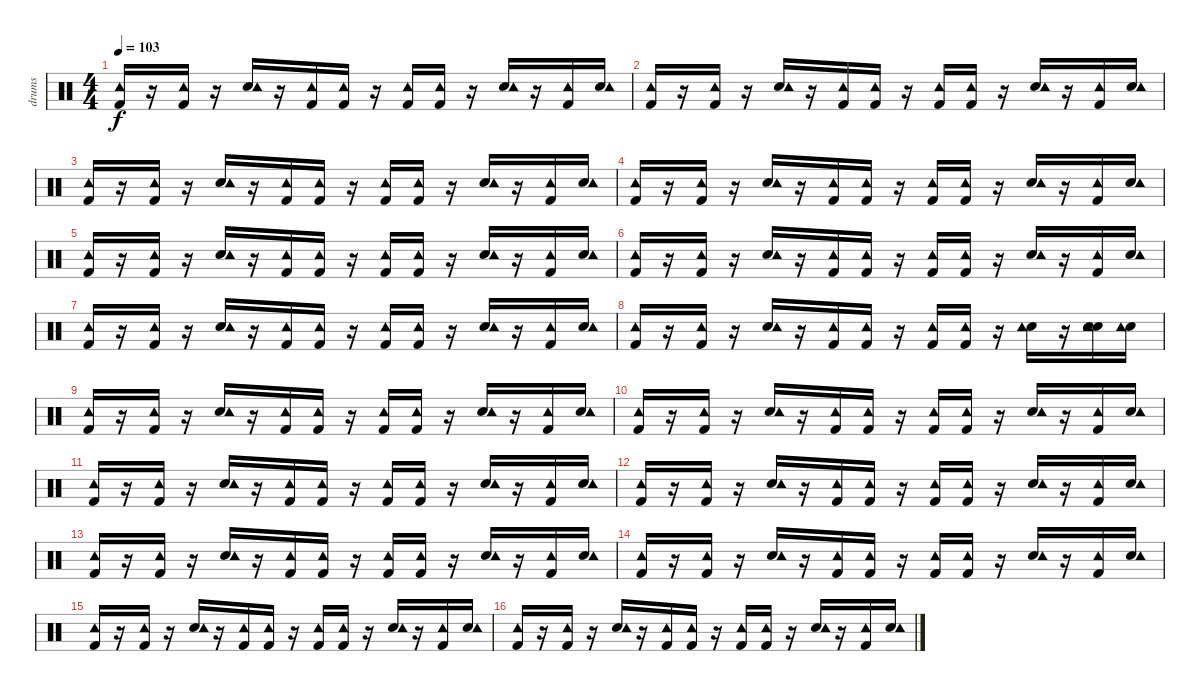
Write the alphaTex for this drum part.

\track ("drums" "drums") {instrument percussion}
\staff {score}
\articulation defaults
\ts (4 4)
\tempo 103
\clef neutral
\ks c
("Kick (hit) 2" "Tambourine (hit)").16{dy f} r.16 ("Kick (hit) 2" "Tambourine (hit)").16 r.16 ("Electric Snare (hit)" "Tambourine (hit)").16 r.16 ("Kick (hit) 2" "Tambourine (hit)").16 ("Kick (hit) 2" "Tambourine (hit)").16 r.16 ("Kick (hit) 2" "Tambourine (hit)").16 ("Kick (hit) 2" "Tambourine (hit)").16 r.16 ("Electric Snare (hit)" "Tambourine (hit)").16 r.16 ("Kick (hit) 2" "Tambourine (hit)").16 ("Electric Snare (hit)" "Tambourine (hit)").16 |
("Kick (hit) 2" "Tambourine (hit)").16 r.16 ("Kick (hit) 2" "Tambourine (hit)").16 r.16 ("Electric Snare (hit)" "Tambourine (hit)").16 r.16 ("Kick (hit) 2" "Tambourine (hit)").16 ("Kick (hit) 2" "Tambourine (hit)").16 r.16 ("Kick (hit) 2" "Tambourine (hit)").16 ("Kick (hit) 2" "Tambourine (hit)").16 r.16 ("Electric Snare (hit)" "Tambourine (hit)").16 r.16 ("Kick (hit) 2" "Tambourine (hit)").16 ("Electric Snare (hit)" "Tambourine (hit)").16 |
("Kick (hit) 2" "Tambourine (hit)").16 r.16 ("Kick (hit) 2" "Tambourine (hit)").16 r.16 ("Electric Snare (hit)" "Tambourine (hit)").16 r.16 ("Kick (hit) 2" "Tambourine (hit)").16 ("Kick (hit) 2" "Tambourine (hit)").16 r.16 ("Kick (hit) 2" "Tambourine (hit)").16 ("Kick (hit) 2" "Tambourine (hit)").16 r.16 ("Electric Snare (hit)" "Tambourine (hit)").16 r.16 ("Kick (hit) 2" "Tambourine (hit)").16 ("Electric Snare (hit)" "Tambourine (hit)").16 |
("Kick (hit) 2" "Tambourine (hit)").16 r.16 ("Kick (hit) 2" "Tambourine (hit)").16 r.16 ("Electric Snare (hit)" "Tambourine (hit)").16 r.16 ("Kick (hit) 2" "Tambourine (hit)").16 ("Kick (hit) 2" "Tambourine (hit)").16 r.16 ("Kick (hit) 2" "Tambourine (hit)").16 ("Kick (hit) 2" "Tambourine (hit)").16 r.16 ("Electric Snare (hit)" "Tambourine (hit)").16 r.16 ("Kick (hit) 2" "Tambourine (hit)").16 ("Electric Snare (hit)" "Tambourine (hit)").16 |
("Kick (hit) 2" "Tambourine (hit)").16 r.16 ("Kick (hit) 2" "Tambourine (hit)").16 r.16 ("Electric Snare (hit)" "Tambourine (hit)").16 r.16 ("Kick (hit) 2" "Tambourine (hit)").16 ("Kick (hit) 2" "Tambourine (hit)").16 r.16 ("Kick (hit) 2" "Tambourine (hit)").16 ("Kick (hit) 2" "Tambourine (hit)").16 r.16 ("Electric Snare (hit)" "Tambourine (hit)").16 r.16 ("Kick (hit) 2" "Tambourine (hit)").16 ("Electric Snare (hit)" "Tambourine (hit)").16 |
("Kick (hit) 2" "Tambourine (hit)").16 r.16 ("Kick (hit) 2" "Tambourine (hit)").16 r.16 ("Electric Snare (hit)" "Tambourine (hit)").16 r.16 ("Kick (hit) 2" "Tambourine (hit)").16 ("Kick (hit) 2" "Tambourine (hit)").16 r.16 ("Kick (hit) 2" "Tambourine (hit)").16 ("Kick (hit) 2" "Tambourine (hit)").16 r.16 ("Electric Snare (hit)" "Tambourine (hit)").16 r.16 ("Kick (hit) 2" "Tambourine (hit)").16 ("Electric Snare (hit)" "Tambourine (hit)").16 |
("Kick (hit) 2" "Tambourine (hit)").16 r.16 ("Kick (hit) 2" "Tambourine (hit)").16 r.16 ("Electric Snare (hit)" "Tambourine (hit)").16 r.16 ("Kick (hit) 2" "Tambourine (hit)").16 ("Kick (hit) 2" "Tambourine (hit)").16 r.16 ("Kick (hit) 2" "Tambourine (hit)").16 ("Kick (hit) 2" "Tambourine (hit)").16 r.16 ("Electric Snare (hit)" "Tambourine (hit)").16 r.16 ("Kick (hit) 2" "Tambourine (hit)").16 ("Electric Snare (hit)" "Tambourine (hit)").16 |
("Kick (hit) 2" "Tambourine (hit)").16 r.16 ("Kick (hit) 2" "Tambourine (hit)").16 r.16 ("Electric Snare (hit)" "Tambourine (hit)").16 r.16 ("Kick (hit) 2" "Tambourine (hit)").16 ("Kick (hit) 2" "Tambourine (hit)").16 r.16 ("Kick (hit) 2" "Tambourine (hit)").16 ("Kick (hit) 2" "Tambourine (hit)").16 r.16 ("Electric Snare (hit)" "Tambourine (hit)").16 r.16 ("Electric Snare (hit)" "Snare (hit) 2" "Tambourine (hit)").16 ("Electric Snare (hit)" "Tambourine (hit)").16 |
("Kick (hit) 2" "Tambourine (hit)").16 r.16 ("Kick (hit) 2" "Tambourine (hit)").16 r.16 ("Electric Snare (hit)" "Tambourine (hit)").16 r.16 ("Kick (hit) 2" "Tambourine (hit)").16 ("Kick (hit) 2" "Tambourine (hit)").16 r.16 ("Kick (hit) 2" "Tambourine (hit)").16 ("Kick (hit) 2" "Tambourine (hit)").16 r.16 ("Electric Snare (hit)" "Tambourine (hit)").16 r.16 ("Kick (hit) 2" "Tambourine (hit)").16 ("Electric Snare (hit)" "Tambourine (hit)").16 |
("Kick (hit) 2" "Tambourine (hit)").16 r.16 ("Kick (hit) 2" "Tambourine (hit)").16 r.16 ("Electric Snare (hit)" "Tambourine (hit)").16 r.16 ("Kick (hit) 2" "Tambourine (hit)").16 ("Kick (hit) 2" "Tambourine (hit)").16 r.16 ("Kick (hit) 2" "Tambourine (hit)").16 ("Kick (hit) 2" "Tambourine (hit)").16 r.16 ("Electric Snare (hit)" "Tambourine (hit)").16 r.16 ("Kick (hit) 2" "Tambourine (hit)").16 ("Electric Snare (hit)" "Tambourine (hit)").16 |
("Kick (hit) 2" "Tambourine (hit)").16 r.16 ("Kick (hit) 2" "Tambourine (hit)").16 r.16 ("Electric Snare (hit)" "Tambourine (hit)").16 r.16 ("Kick (hit) 2" "Tambourine (hit)").16 ("Kick (hit) 2" "Tambourine (hit)").16 r.16 ("Kick (hit) 2" "Tambourine (hit)").16 ("Kick (hit) 2" "Tambourine (hit)").16 r.16 ("Electric Snare (hit)" "Tambourine (hit)").16 r.16 ("Kick (hit) 2" "Tambourine (hit)").16 ("Electric Snare (hit)" "Tambourine (hit)").16 |
("Kick (hit) 2" "Tambourine (hit)").16 r.16 ("Kick (hit) 2" "Tambourine (hit)").16 r.16 ("Electric Snare (hit)" "Tambourine (hit)").16 r.16 ("Kick (hit) 2" "Tambourine (hit)").16 ("Kick (hit) 2" "Tambourine (hit)").16 r.16 ("Kick (hit) 2" "Tambourine (hit)").16 ("Kick (hit) 2" "Tambourine (hit)").16 r.16 ("Electric Snare (hit)" "Tambourine (hit)").16 r.16 ("Kick (hit) 2" "Tambourine (hit)").16 ("Electric Snare (hit)" "Tambourine (hit)").16 |
("Kick (hit) 2" "Tambourine (hit)").16 r.16 ("Kick (hit) 2" "Tambourine (hit)").16 r.16 ("Electric Snare (hit)" "Tambourine (hit)").16 r.16 ("Kick (hit) 2" "Tambourine (hit)").16 ("Kick (hit) 2" "Tambourine (hit)").16 r.16 ("Kick (hit) 2" "Tambourine (hit)").16 ("Kick (hit) 2" "Tambourine (hit)").16 r.16 ("Electric Snare (hit)" "Tambourine (hit)").16 r.16 ("Kick (hit) 2" "Tambourine (hit)").16 ("Electric Snare (hit)" "Tambourine (hit)").16 |
("Kick (hit) 2" "Tambourine (hit)").16 r.16 ("Kick (hit) 2" "Tambourine (hit)").16 r.16 ("Electric Snare (hit)" "Tambourine (hit)").16 r.16 ("Kick (hit) 2" "Tambourine (hit)").16 ("Kick (hit) 2" "Tambourine (hit)").16 r.16 ("Kick (hit) 2" "Tambourine (hit)").16 ("Kick (hit) 2" "Tambourine (hit)").16 r.16 ("Electric Snare (hit)" "Tambourine (hit)").16 r.16 ("Kick (hit) 2" "Tambourine (hit)").16 ("Electric Snare (hit)" "Tambourine (hit)").16 |
("Kick (hit) 2" "Tambourine (hit)").16 r.16 ("Kick (hit) 2" "Tambourine (hit)").16 r.16 ("Electric Snare (hit)" "Tambourine (hit)").16 r.16 ("Kick (hit) 2" "Tambourine (hit)").16 ("Kick (hit) 2" "Tambourine (hit)").16 r.16 ("Kick (hit) 2" "Tambourine (hit)").16 ("Kick (hit) 2" "Tambourine (hit)").16 r.16 ("Electric Snare (hit)" "Tambourine (hit)").16 r.16 ("Kick (hit) 2" "Tambourine (hit)").16 ("Electric Snare (hit)" "Tambourine (hit)").16 |
("Kick (hit) 2" "Tambourine (hit)").16 r.16 ("Kick (hit) 2" "Tambourine (hit)").16 r.16 ("Electric Snare (hit)" "Tambourine (hit)").16 r.16 ("Kick (hit) 2" "Tambourine (hit)").16 ("Kick (hit) 2" "Tambourine (hit)").16 r.16 ("Kick (hit) 2" "Tambourine (hit)").16 ("Kick (hit) 2" "Tambourine (hit)").16 r.16 ("Electric Snare (hit)" "Tambourine (hit)").16 r.16 ("Kick (hit) 2" "Tambourine (hit)").16 ("Electric Snare (hit)" "Tambourine (hit)").16
